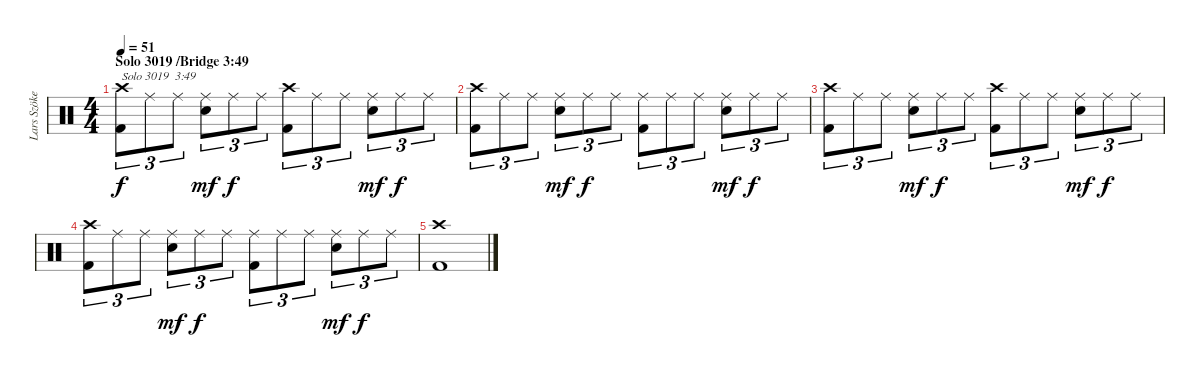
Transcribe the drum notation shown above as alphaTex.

\track ("Lars Szöke (Percussion)" "Lars Szöke") {instrument percussion}
\staff {score}
\articulation defaults
\ts (4 4)
\section ("" "Solo 3019 /Bridge 3:49")
\tempo 51
\clef neutral
\ks c
("Kick (hit) 2" "Crash high (hit)").8{tu (3 2) txt "Solo 3019  3:49" dy f} "Ride (middle)".8{tu (3 2)} "Ride (middle)".8{tu (3 2)} ("Snare (hit) 2" "Ride (middle)").8{tu (3 2) dy mf} "Ride (middle)".8{tu (3 2) dy f} "Ride (middle)".8{tu (3 2)} ("Kick (hit) 2" "Crash high (hit)").8{tu (3 2)} "Ride (middle)".8{tu (3 2)} "Ride (middle)".8{tu (3 2)} ("Snare (hit) 2" "Ride (middle)").8{tu (3 2) dy mf} "Ride (middle)".8{tu (3 2) dy f} "Ride (middle)".8{tu (3 2)} |
("Kick (hit) 2" "Crash high (hit)").8{tu (3 2)} "Ride (middle)".8{tu (3 2)} "Ride (middle)".8{tu (3 2)} ("Snare (hit) 2" "Ride (middle)").8{tu (3 2) dy mf} "Ride (middle)".8{tu (3 2) dy f} "Ride (middle)".8{tu (3 2)} ("Kick (hit) 2" "Ride (middle)").8{tu (3 2)} "Ride (middle)".8{tu (3 2)} "Ride (middle)".8{tu (3 2)} ("Snare (hit) 2" "Ride (middle)").8{tu (3 2) dy mf} "Ride (middle)".8{tu (3 2) dy f} "Ride (middle)".8{tu (3 2)} |
("Kick (hit) 2" "Crash high (hit)").8{tu (3 2)} "Ride (middle)".8{tu (3 2)} "Ride (middle)".8{tu (3 2)} ("Snare (hit) 2" "Ride (middle)").8{tu (3 2) dy mf} "Ride (middle)".8{tu (3 2) dy f} "Ride (middle)".8{tu (3 2)} ("Kick (hit) 2" "Crash high (hit)").8{tu (3 2)} "Ride (middle)".8{tu (3 2)} "Ride (middle)".8{tu (3 2)} ("Snare (hit) 2" "Ride (middle)").8{tu (3 2) dy mf} "Ride (middle)".8{tu (3 2) dy f} "Ride (middle)".8{tu (3 2)} |
("Kick (hit) 2" "Crash high (hit)").8{tu (3 2)} "Ride (middle)".8{tu (3 2)} "Ride (middle)".8{tu (3 2)} ("Snare (hit) 2" "Ride (middle)").8{tu (3 2) dy mf} "Ride (middle)".8{tu (3 2) dy f} "Ride (middle)".8{tu (3 2)} ("Kick (hit) 2" "Ride (middle)").8{tu (3 2)} "Ride (middle)".8{tu (3 2)} "Ride (middle)".8{tu (3 2)} ("Snare (hit) 2" "Ride (middle)").8{tu (3 2) dy mf} "Ride (middle)".8{tu (3 2) dy f} "Ride (middle)".8{tu (3 2)} |
("Kick (hit) 2" "Crash high (hit)").1
